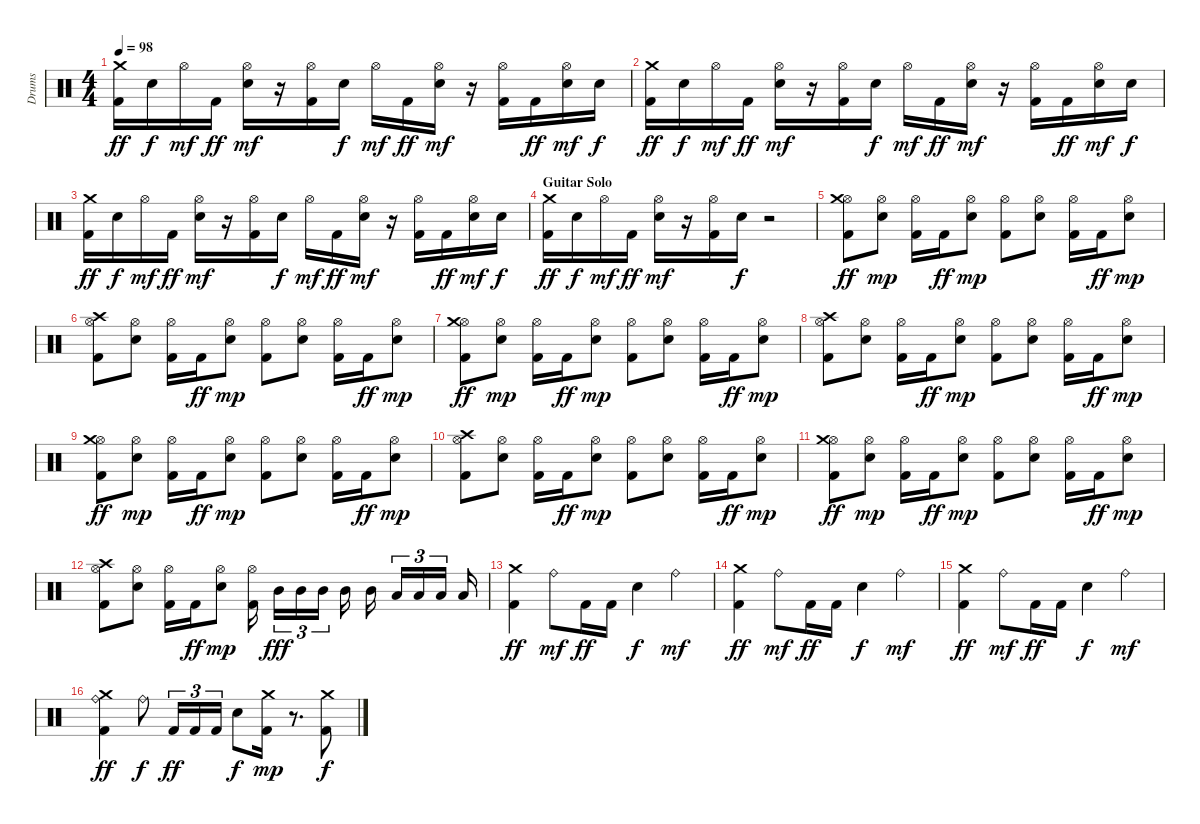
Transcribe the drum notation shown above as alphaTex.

\track ("Drums" "Drums") {instrument percussion}
\staff {score}
\articulation defaults
\ts (4 4)
\tempo 98
\clef neutral
\ks c
("Kick (hit) 2" "Crash medium (hit)").16{dy ff} "Snare (hit) 2".16{dy f} "Hi-Hat (open)".16{dy mf} "Kick (hit) 2".16{dy ff} ("Hi-Hat (open)" "Snare (hit) 2").16{dy mf} r.16 ("Kick (hit) 2" "Hi-Hat (open)").16 "Snare (hit) 2".16{dy f} "Hi-Hat (open)".16{dy mf} "Kick (hit) 2".16{dy ff} ("Hi-Hat (open)" "Snare (hit) 2").16{dy mf} r.16 ("Kick (hit) 2" "Hi-Hat (open)").16 "Kick (hit) 2".16{dy ff} ("Hi-Hat (open)" "Snare (hit) 2").16{dy mf} "Snare (hit) 2".16{dy f} |
("Kick (hit) 2" "Crash medium (hit)").16{dy ff} "Snare (hit) 2".16{dy f} "Hi-Hat (open)".16{dy mf} "Kick (hit) 2".16{dy ff} ("Hi-Hat (open)" "Snare (hit) 2").16{dy mf} r.16 ("Kick (hit) 2" "Hi-Hat (open)").16 "Snare (hit) 2".16{dy f} "Hi-Hat (open)".16{dy mf} "Kick (hit) 2".16{dy ff} ("Hi-Hat (open)" "Snare (hit) 2").16{dy mf} r.16 ("Kick (hit) 2" "Hi-Hat (open)").16 "Kick (hit) 2".16{dy ff} ("Hi-Hat (open)" "Snare (hit) 2").16{dy mf} "Snare (hit) 2".16{dy f} |
("Kick (hit) 2" "Crash medium (hit)").16{dy ff} "Snare (hit) 2".16{dy f} "Hi-Hat (open)".16{dy mf} "Kick (hit) 2".16{dy ff} ("Hi-Hat (open)" "Snare (hit) 2").16{dy mf} r.16 ("Kick (hit) 2" "Hi-Hat (open)").16 "Snare (hit) 2".16{dy f} "Hi-Hat (open)".16{dy mf} "Kick (hit) 2".16{dy ff} ("Hi-Hat (open)" "Snare (hit) 2").16{dy mf} r.16 ("Kick (hit) 2" "Hi-Hat (open)").16 "Kick (hit) 2".16{dy ff} ("Hi-Hat (open)" "Snare (hit) 2").16{dy mf} "Snare (hit) 2".16{dy f} |
\section ("" "Guitar Solo")
("Kick (hit) 2" "Crash medium (hit)").16{dy ff} "Snare (hit) 2".16{dy f} "Hi-Hat (open)".16{dy mf} "Kick (hit) 2".16{dy ff} ("Hi-Hat (open)" "Snare (hit) 2").16{dy mf} r.16 ("Kick (hit) 2" "Hi-Hat (open)").16 "Snare (hit) 2".16{dy f} r.2 |
("Kick (hit) 2" "Hi-Hat (open)" "Crash medium (hit)").8{dy ff} ("Hi-Hat (open)" "Snare (hit) 2").8{dy mp} ("Kick (hit) 2" "Hi-Hat (open)").16 "Kick (hit) 2".16{dy ff} ("Hi-Hat (open)" "Snare (hit) 2").8{dy mp} ("Kick (hit) 2" "Hi-Hat (open)").8 ("Hi-Hat (open)" "Snare (hit) 2").8 ("Kick (hit) 2" "Hi-Hat (open)").16 "Kick (hit) 2".16{dy ff} ("Hi-Hat (open)" "Snare (hit) 2").8{dy mp} |
("Kick (hit) 2" "Hi-Hat (open)" "Crash high (hit)").8 ("Hi-Hat (open)" "Snare (hit) 2").8 ("Kick (hit) 2" "Hi-Hat (open)").16 "Kick (hit) 2".16{dy ff} ("Hi-Hat (open)" "Snare (hit) 2").8{dy mp} ("Kick (hit) 2" "Hi-Hat (open)").8 ("Hi-Hat (open)" "Snare (hit) 2").8 ("Kick (hit) 2" "Hi-Hat (open)").16 "Kick (hit) 2".16{dy ff} ("Hi-Hat (open)" "Snare (hit) 2").8{dy mp} |
("Kick (hit) 2" "Hi-Hat (open)" "Crash medium (hit)").8{dy ff} ("Hi-Hat (open)" "Snare (hit) 2").8{dy mp} ("Kick (hit) 2" "Hi-Hat (open)").16 "Kick (hit) 2".16{dy ff} ("Hi-Hat (open)" "Snare (hit) 2").8{dy mp} ("Kick (hit) 2" "Hi-Hat (open)").8 ("Hi-Hat (open)" "Snare (hit) 2").8 ("Kick (hit) 2" "Hi-Hat (open)").16 "Kick (hit) 2".16{dy ff} ("Hi-Hat (open)" "Snare (hit) 2").8{dy mp} |
("Kick (hit) 2" "Hi-Hat (open)" "Crash high (hit)").8 ("Hi-Hat (open)" "Snare (hit) 2").8 ("Kick (hit) 2" "Hi-Hat (open)").16 "Kick (hit) 2".16{dy ff} ("Hi-Hat (open)" "Snare (hit) 2").8{dy mp} ("Kick (hit) 2" "Hi-Hat (open)").8 ("Hi-Hat (open)" "Snare (hit) 2").8 ("Kick (hit) 2" "Hi-Hat (open)").16 "Kick (hit) 2".16{dy ff} ("Hi-Hat (open)" "Snare (hit) 2").8{dy mp} |
("Kick (hit) 2" "Hi-Hat (open)" "Crash medium (hit)").8{dy ff} ("Hi-Hat (open)" "Snare (hit) 2").8{dy mp} ("Kick (hit) 2" "Hi-Hat (open)").16 "Kick (hit) 2".16{dy ff} ("Hi-Hat (open)" "Snare (hit) 2").8{dy mp} ("Kick (hit) 2" "Hi-Hat (open)").8 ("Hi-Hat (open)" "Snare (hit) 2").8 ("Kick (hit) 2" "Hi-Hat (open)").16 "Kick (hit) 2".16{dy ff} ("Hi-Hat (open)" "Snare (hit) 2").8{dy mp} |
("Kick (hit) 2" "Hi-Hat (open)" "Crash high (hit)").8 ("Hi-Hat (open)" "Snare (hit) 2").8 ("Kick (hit) 2" "Hi-Hat (open)").16 "Kick (hit) 2".16{dy ff} ("Hi-Hat (open)" "Snare (hit) 2").8{dy mp} ("Kick (hit) 2" "Hi-Hat (open)").8 ("Hi-Hat (open)" "Snare (hit) 2").8 ("Kick (hit) 2" "Hi-Hat (open)").16 "Kick (hit) 2".16{dy ff} ("Hi-Hat (open)" "Snare (hit) 2").8{dy mp} |
("Kick (hit) 2" "Hi-Hat (open)" "Crash medium (hit)").8{dy ff} ("Hi-Hat (open)" "Snare (hit) 2").8{dy mp} ("Kick (hit) 2" "Hi-Hat (open)").16 "Kick (hit) 2".16{dy ff} ("Hi-Hat (open)" "Snare (hit) 2").8{dy mp} ("Kick (hit) 2" "Hi-Hat (open)").8 ("Hi-Hat (open)" "Snare (hit) 2").8 ("Kick (hit) 2" "Hi-Hat (open)").16 "Kick (hit) 2".16{dy ff} ("Hi-Hat (open)" "Snare (hit) 2").8{dy mp} |
("Kick (hit) 2" "Hi-Hat (open)" "Crash high (hit)").8 ("Hi-Hat (open)" "Snare (hit) 2").8 ("Kick (hit) 2" "Hi-Hat (open)").16 "Kick (hit) 2".16{dy ff} ("Hi-Hat (open)" "Snare (hit) 2").8{dy mp} ("Kick (hit) 2" "Hi-Hat (open)").16 "Mid Tom (hit)".16{tu (3 2) dy fff} "Mid Tom (hit)".16{tu (3 2)} "Mid Tom (hit)".16{tu (3 2)} "Mid Tom (hit)".16 "Mid Tom (hit)".16 "Low Tom (hit)".16{tu (3 2)} "Low Tom (hit)".16{tu (3 2)} "Low Tom (hit)".16{tu (3 2)} "Low Tom (hit)".16 |
("Kick (hit) 2" "Crash medium (hit)").4{dy ff} "Ride (bell)".8{dy mf} "Kick (hit) 2".16{dy ff} "Kick (hit) 2".16 "Snare (hit) 2".4{dy f} "Ride (bell)".4{dy mf} |
("Kick (hit) 2" "Crash medium (hit)").4{dy ff} "Ride (bell)".8{dy mf} "Kick (hit) 2".16{dy ff} "Kick (hit) 2".16 "Snare (hit) 2".4{dy f} "Ride (bell)".4{dy mf} |
("Kick (hit) 2" "Crash medium (hit)").4{dy ff} "Ride (bell)".8{dy mf} "Kick (hit) 2".16{dy ff} "Kick (hit) 2".16 "Snare (hit) 2".4{dy f} "Ride (bell)".4{dy mf} |
("Kick (hit) 2" "Ride (bell)" "Crash medium (hit)").4{dy ff} "Ride (bell)".8{dy f} "Kick (hit) 2".16{tu (3 2) dy ff} "Kick (hit) 2".16{tu (3 2)} "Kick (hit) 2".16{tu (3 2)} "Snare (hit) 2".8{dy f} ("Kick (hit) 2" "Crash medium (hit)").16{dy mp} r.8{d} ("Kick (hit) 2" "Crash medium (hit)").8{dy f}
